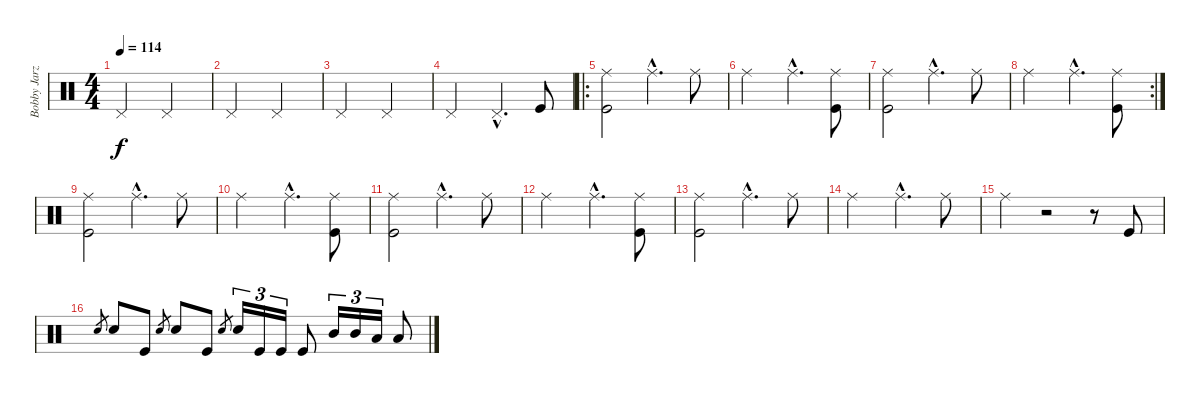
\track ("Bobby Jarzombek" "Bobby Jarz") {instrument percussion}
\staff {score}
\articulation defaults
\ts (4 4)
\tempo 114
\clef neutral
\ks c "Pedal Hi-Hat (hit)".2{dy f} "Pedal Hi-Hat (hit)".2
|
"Pedal Hi-Hat (hit)".2 "Pedal Hi-Hat (hit)".2 |
"Pedal Hi-Hat (hit)".2 "Pedal Hi-Hat (hit)".2 |
"Pedal Hi-Hat (hit)".2 "Pedal Hi-Hat (hit)"{hac}.4{d} "Kick (hit)".8 |
\ro
("Ride (middle)" "Kick (hit)").2 "Ride (middle)"{hac}.4{d} "Ride (middle)".8 |
"Ride (middle)".2 "Ride (middle)"{hac}.4{d} ("Ride (middle)" "Kick (hit)").8 |
("Ride (middle)" "Kick (hit)").2 "Ride (middle)"{hac}.4{d} "Ride (middle)".8 |
\rc 2 "Ride (middle)".2 "Ride (middle)"{hac}.4{d}
("Ride (middle)" "Kick (hit)").8 |
("Ride (middle)" "Kick (hit)").2 "Ride (middle)"{hac}.4{d} "Ride (middle)".8 |
"Ride (middle)".2 "Ride (middle)"{hac}.4{d} ("Ride (middle)" "Kick (hit)").8 |
("Ride (middle)" "Kick (hit)").2 "Ride (middle)"{hac}.4{d} "Ride (middle)".8 |
"Ride (middle)".2 "Ride (middle)"{hac}.4{d} ("Ride (middle)" "Kick (hit)").8 |
("Ride (middle)" "Kick (hit)").2 "Ride (middle)"{hac}.4{d} "Ride (middle)".8 |
"Ride (middle)".2 "Ride (middle)"{hac}.4{d} "Ride (middle)".8 |
"Ride (middle)".4 r.2 r.8 "Kick (hit)".8 |
"Electric Snare (hit)".8{gr} "Electric Snare (hit)".8 "Kick (hit)".8 "Electric Snare (hit)".8{gr} "Electric Snare (hit)".8 "Kick (hit)".8 "Electric Snare (hit)".8{gr} "Electric Snare (hit)".16{tu (3 2)} "Kick (hit)".16{tu (3 2)} "Kick (hit)".16{tu (3 2)} "Kick (hit)".8 "Mid Tom (hit)".16{tu (3 2)} "Mid Tom (hit)".16{tu (3 2)} "Low Tom (hit)".16{tu (3 2)} "Low Tom (hit)".8
